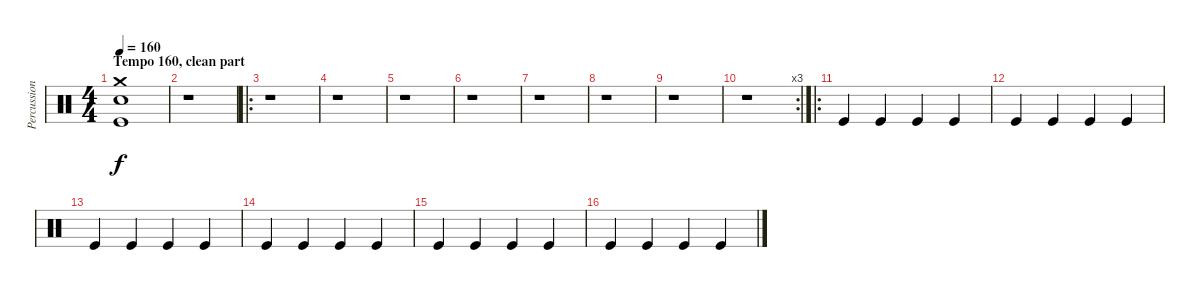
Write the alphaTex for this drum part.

\track ("Percussion" "Percussion") {instrument percussion}
\staff {score}
\articulation defaults
\ts (4 4)
\section ("" "Tempo 160, clean part")
\tempo 160
\clef neutral
\ks c
("Crash medium (hit)" "Snare (hit) 2" "Kick (hit)").1{dy f} |
r.1 |
\ro
r.1 |
r.1 |
r.1 |
r.1 |
r.1 |
r.1 |
r.1 |
\rc 3
r.1 |
\ro "Kick (hit)".4 "Kick (hit)".4 "Kick (hit)".4 "Kick (hit)".4
|
"Kick (hit)".4 "Kick (hit)".4 "Kick (hit)".4 "Kick (hit)".4 |
"Kick (hit)".4 "Kick (hit)".4 "Kick (hit)".4 "Kick (hit)".4 |
"Kick (hit)".4 "Kick (hit)".4 "Kick (hit)".4 "Kick (hit)".4 |
"Kick (hit)".4 "Kick (hit)".4 "Kick (hit)".4 "Kick (hit)".4 |
"Kick (hit)".4 "Kick (hit)".4 "Kick (hit)".4 "Kick (hit)".4
